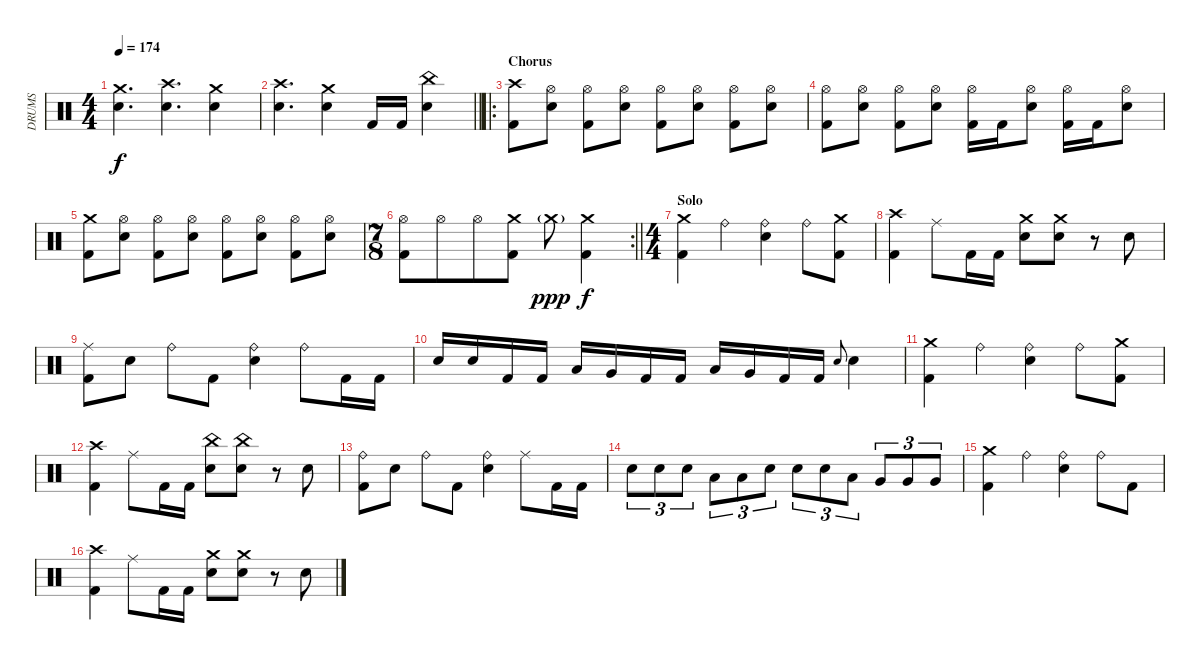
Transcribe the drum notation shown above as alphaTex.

\track ("DRUMS" "DRUMS") {instrument percussion}
\staff {score}
\articulation defaults
\ts (4 4)
\tempo 174
\clef neutral
\ks c
("Crash medium (hit)" "Snare (hit) 2").4{d dy f} ("Crash high (hit)" "Snare (hit) 2").4{d} ("Crash medium (hit)" "Snare (hit) 2").4 |
\barLineRight lightlight
("Crash high (hit)" "Snare (hit) 2").4{d} ("Crash medium (hit)" "Snare (hit) 2").4 "Kick (hit) 2".16 "Kick (hit) 2".16 ("China (hit)" "Snare (hit) 2").4 |
\ro
\section ("" "Chorus")
("Crash high (hit)" "Kick (hit) 2").8 ("Hi-Hat (open)" "Snare (hit) 2").8 ("Hi-Hat (open)" "Kick (hit) 2").8 ("Hi-Hat (open)" "Snare (hit) 2").8 ("Hi-Hat (open)" "Kick (hit) 2").8 ("Hi-Hat (open)" "Snare (hit) 2").8 ("Hi-Hat (open)" "Kick (hit) 2").8 ("Hi-Hat (open)" "Snare (hit) 2").8 |
("Hi-Hat (open)" "Kick (hit) 2").8 ("Hi-Hat (open)" "Snare (hit) 2").8 ("Hi-Hat (open)" "Kick (hit) 2").8 ("Hi-Hat (open)" "Snare (hit) 2").8 ("Hi-Hat (open)" "Kick (hit) 2").16 "Kick (hit) 2".16 ("Hi-Hat (open)" "Snare (hit) 2").8 ("Hi-Hat (open)" "Kick (hit) 2").16 "Kick (hit) 2".16 ("Hi-Hat (open)" "Snare (hit) 2").8 |
("Crash medium (hit)" "Kick (hit) 2").8 ("Hi-Hat (open)" "Snare (hit) 2").8 ("Hi-Hat (open)" "Kick (hit) 2").8 ("Hi-Hat (open)" "Snare (hit) 2").8 ("Hi-Hat (open)" "Kick (hit) 2").8 ("Hi-Hat (open)" "Snare (hit) 2").8 ("Hi-Hat (open)" "Kick (hit) 2").8 ("Hi-Hat (open)" "Snare (hit) 2").8 |
\rc 2
\ts (7 8)
\barLineRight lightlight
("Hi-Hat (open)" "Kick (hit) 2").8 "Hi-Hat (open)".8 "Hi-Hat (open)".8 ("Crash medium (hit)" "Kick (hit) 2").8 "Crash medium (hit)"{g}.8{dy ppp} ("Crash medium (hit)" "Kick (hit) 2").4{dy f} |
\ts (4 4)
\section ("" "Solo")
("Crash medium (hit)" "Kick (hit) 2").4 "Ride (bell)".4 ("Ride (bell)" "Snare (hit) 2").4 "Ride (bell)".8 ("Crash medium (hit)" "Kick (hit) 2").8 |
("Crash high (hit)" "Kick (hit) 2").4 "Ride (middle)".8 "Kick (hit) 2".16 "Kick (hit) 2".16 ("Crash medium (hit)" "Snare (hit) 2").8 ("Crash medium (hit)" "Snare (hit) 2").8 r.8 "Snare (hit) 2".8 |
("Ride (middle)" "Kick (hit) 2").8 "Snare (hit) 2".8 "Ride (bell)".8 "Kick (hit) 2".8 ("Ride (bell)" "Snare (hit) 2").4 "Ride (bell)".8 "Kick (hit) 2".16 "Kick (hit) 2".16 |
"Snare (hit) 2".16 "Snare (hit) 2".16 "Kick (hit) 2".16 "Kick (hit) 2".16 "Low Tom (hit)".16 "Very Low Tom (hit)".16 "Kick (hit) 2".16 "Kick (hit) 2".16 "Low Tom (hit)".16 "Very Low Tom (hit)".16 "Kick (hit) 2".16 "Kick (hit) 2".16 "Snare (hit) 2".8{gr onbeat} "Snare (hit) 2".4 |
("Crash medium (hit)" "Kick (hit) 2").4 "Ride (bell)".4 ("Ride (bell)" "Snare (hit) 2").4 "Ride (bell)".8 ("Crash medium (hit)" "Kick (hit) 2").8 |
("Crash high (hit)" "Kick (hit) 2").4 "Ride (middle)".8 "Kick (hit) 2".16 "Kick (hit) 2".16 ("China (hit)" "Snare (hit) 2").8 ("China (hit)" "Snare (hit) 2").8 r.8 "Snare (hit) 2".8 |
("Ride (bell)" "Kick (hit) 2").8 "Snare (hit) 2".8 "Ride (bell)".8 "Kick (hit) 2".8 ("Ride (bell)" "Snare (hit) 2").4 "Ride (middle)".8 "Kick (hit) 2".16 "Kick (hit) 2".16 |
"Snare (hit) 2".8{tu (3 2)} "Snare (hit) 2".8{tu (3 2)} "Snare (hit) 2".8{tu (3 2)} "Low Tom (hit)".8{tu (3 2)} "Low Tom (hit)".8{tu (3 2)} "Snare (hit) 2".8{tu (3 2)} "Snare (hit) 2".8{tu (3 2)} "Snare (hit) 2".8{tu (3 2)} "Low Tom (hit)".8{tu (3 2)} "Very Low Tom (hit)".8{tu (3 2)} "Very Low Tom (hit)".8{tu (3 2)} "Very Low Tom (hit)".8{tu (3 2)} |
("Crash medium (hit)" "Kick (hit) 2").4 "Ride (bell)".4 ("Ride (bell)" "Snare (hit) 2").4 "Ride (bell)".8 "Kick (hit) 2".8 |
("Crash high (hit)" "Kick (hit) 2").4 "Ride (middle)".8 "Kick (hit) 2".16 "Kick (hit) 2".16 ("Crash medium (hit)" "Snare (hit) 2").8 ("Crash medium (hit)" "Snare (hit) 2").8 r.8 "Snare (hit) 2".8
